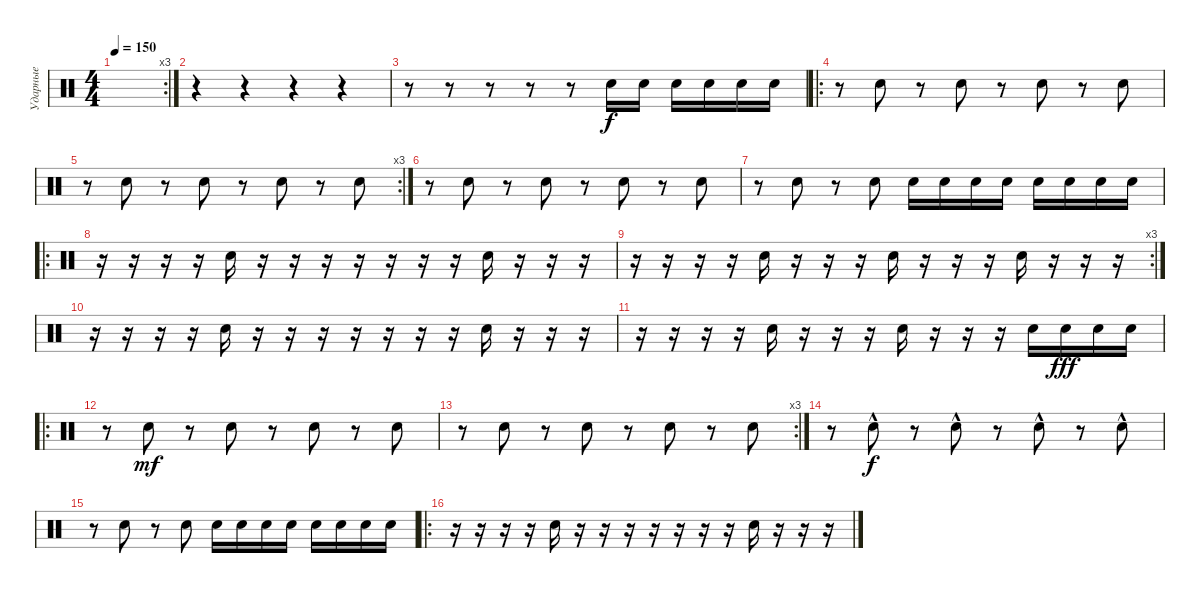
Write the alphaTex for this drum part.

\track ("Ударные" "Ударные") {instrument percussion}
\staff {score}
\articulation defaults
\rc 3
\ts (4 4)
\tempo 150
\clef neutral
\ks c
|
r.4 r.4 r.4 r.4 |
r.8 r.8 r.8 r.8 r.8 "Snare (hit) 2".16{dy f} "Snare (hit) 2".16 "Snare (hit) 2".16 "Snare (hit) 2".16 "Snare (hit) 2".16 "Snare (hit) 2".16 |
\ro
r.8 "Electric Snare (hit)".8 r.8 "Electric Snare (hit)".8 r.8 "Electric Snare (hit)".8 r.8 "Electric Snare (hit)".8 |
\rc 3
r.8 "Electric Snare (hit)".8 r.8 "Electric Snare (hit)".8 r.8 "Electric Snare (hit)".8 r.8 "Electric Snare (hit)".8 |
r.8 "Electric Snare (hit)".8 r.8 "Electric Snare (hit)".8 r.8 "Electric Snare (hit)".8 r.8 "Electric Snare (hit)".8 |
r.8 "Electric Snare (hit)".8 r.8 "Electric Snare (hit)".8 "Snare (hit) 2".16 "Snare (hit) 2".16 "Snare (hit) 2".16 "Snare (hit) 2".16 "Snare (hit) 2".16 "Snare (hit) 2".16 "Snare (hit) 2".16 "Snare (hit) 2".16 |
\ro
r.16 r.16 r.16 r.16 "Snare (hit) 2".16 r.16 r.16 r.16 r.16 r.16 r.16 r.16 "Snare (hit) 2".16 r.16 r.16 r.16 |
\rc 3
r.16 r.16 r.16 r.16 "Snare (hit) 2".16 r.16 r.16 r.16 "Snare (hit) 2".16 r.16 r.16 r.16 "Snare (hit) 2".16 r.16 r.16 r.16 |
r.16 r.16 r.16 r.16 "Snare (hit) 2".16 r.16 r.16 r.16 r.16 r.16 r.16 r.16 "Snare (hit) 2".16 r.16 r.16 r.16 |
r.16 r.16 r.16 r.16 "Snare (hit) 2".16 r.16 r.16 r.16 "Snare (hit) 2".16 r.16 r.16 r.16 "Snare (hit) 2".16 "Snare (hit) 2".16{dy fff} "Snare (hit) 2".16 "Snare (hit) 2".16 |
\ro
r.8 "Electric Snare (hit)".8{dy mf} r.8 "Electric Snare (hit)".8 r.8 "Electric Snare (hit)".8 r.8 "Electric Snare (hit)".8 |
\rc 3
r.8 "Electric Snare (hit)".8 r.8 "Electric Snare (hit)".8 r.8 "Electric Snare (hit)".8 r.8 "Electric Snare (hit)".8 |
r.8 "Electric Snare (hit)"{hac}.8{dy f} r.8 "Electric Snare (hit)"{hac}.8 r.8 "Electric Snare (hit)"{hac}.8 r.8 "Electric Snare (hit)"{hac}.8 |
r.8 "Electric Snare (hit)".8 r.8 "Electric Snare (hit)".8 "Snare (hit) 2".16 "Snare (hit) 2".16 "Snare (hit) 2".16 "Snare (hit) 2".16 "Snare (hit) 2".16 "Snare (hit) 2".16 "Snare (hit) 2".16 "Snare (hit) 2".16 |
\ro
r.16 r.16 r.16 r.16 "Snare (hit) 2".16 r.16 r.16 r.16 r.16 r.16 r.16 r.16 "Snare (hit) 2".16 r.16 r.16 r.16
